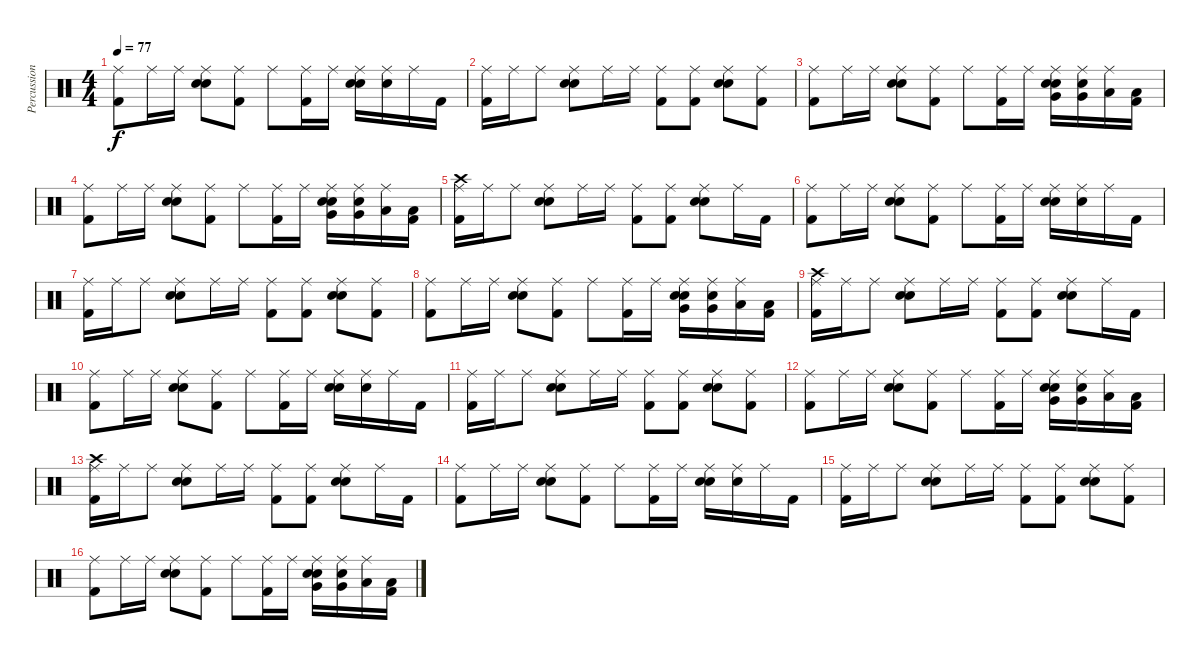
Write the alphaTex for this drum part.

\track ("Percussion" "Percussion") {instrument percussion}
\staff {score}
\articulation defaults
\ts (4 4)
\tempo 77
\clef neutral
\ks c
("Kick (hit) 2" "Ride (middle)").8{dy f} "Ride (middle)".16 "Ride (middle)".16 ("Metronome (bell)" "Electric Snare (hit)" "Ride (middle)").8 ("Kick (hit) 2" "Ride (middle)").8 "Ride (middle)".8 ("Kick (hit) 2" "Ride (middle)").16 "Ride (middle)".16 ("Metronome (bell)" "Electric Snare (hit)" "Ride (middle)").16 ("Electric Snare (hit)" "Ride (middle)").16 "Ride (middle)".16 "Kick (hit) 2".16 |
("Kick (hit) 2" "Ride (middle)").16 "Ride (middle)".16 "Ride (middle)".8 ("Metronome (bell)" "Electric Snare (hit)" "Ride (middle)").8 "Ride (middle)".16 "Ride (middle)".16 ("Kick (hit) 2" "Ride (middle)").8 ("Kick (hit) 2" "Ride (middle)").8 ("Metronome (bell)" "Electric Snare (hit)" "Ride (middle)").8 ("Kick (hit) 2" "Ride (middle)").8 |
("Kick (hit) 2" "Ride (middle)").8 "Ride (middle)".16 "Ride (middle)".16 ("Metronome (bell)" "Electric Snare (hit)" "Ride (middle)").8 ("Kick (hit) 2" "Ride (middle)").8 "Ride (middle)".8 ("Kick (hit) 2" "Ride (middle)").16 "Ride (middle)".16 ("Metronome (bell)" "Electric Snare (hit)" "Very Low Tom (hit)" "Ride (middle)").16 ("Electric Snare (hit)" "Very Low Tom (hit)" "Ride (middle)").16 ("Low Floor Tom (hit)" "Ride (middle)").16 ("Kick (hit) 2" "Low Floor Tom (hit)").16 |
("Kick (hit) 2" "Ride (middle)").8 "Ride (middle)".16 "Ride (middle)".16 ("Metronome (bell)" "Electric Snare (hit)" "Ride (middle)").8 ("Kick (hit) 2" "Ride (middle)").8 "Ride (middle)".8 ("Kick (hit) 2" "Ride (middle)").16 "Ride (middle)".16 ("Metronome (bell)" "Electric Snare (hit)" "Very Low Tom (hit)" "Ride (middle)").16 ("Electric Snare (hit)" "Very Low Tom (hit)" "Ride (middle)").16 ("Low Floor Tom (hit)" "Ride (middle)").16 ("Kick (hit) 2" "Low Floor Tom (hit)").16 |
("Kick (hit) 2" "Crash high (hit)" "Ride (middle)").16 "Ride (middle)".16 "Ride (middle)".8 ("Metronome (bell)" "Electric Snare (hit)" "Ride (middle)").8 "Ride (middle)".16 "Ride (middle)".16 ("Kick (hit) 2" "Ride (middle)").8 ("Kick (hit) 2" "Ride (middle)").8 ("Metronome (bell)" "Electric Snare (hit)" "Ride (middle)").8 "Ride (middle)".16 "Kick (hit) 2".16 |
("Kick (hit) 2" "Ride (middle)").8 "Ride (middle)".16 "Ride (middle)".16 ("Metronome (bell)" "Electric Snare (hit)" "Ride (middle)").8 ("Kick (hit) 2" "Ride (middle)").8 "Ride (middle)".8 ("Kick (hit) 2" "Ride (middle)").16 "Ride (middle)".16 ("Metronome (bell)" "Electric Snare (hit)" "Ride (middle)").16 ("Electric Snare (hit)" "Ride (middle)").16 "Ride (middle)".16 "Kick (hit) 2".16 |
("Kick (hit) 2" "Ride (middle)").16 "Ride (middle)".16 "Ride (middle)".8 ("Metronome (bell)" "Electric Snare (hit)" "Ride (middle)").8 "Ride (middle)".16 "Ride (middle)".16 ("Kick (hit) 2" "Ride (middle)").8 ("Kick (hit) 2" "Ride (middle)").8 ("Metronome (bell)" "Electric Snare (hit)" "Ride (middle)").8 ("Kick (hit) 2" "Ride (middle)").8 |
("Kick (hit) 2" "Ride (middle)").8 "Ride (middle)".16 "Ride (middle)".16 ("Metronome (bell)" "Electric Snare (hit)" "Ride (middle)").8 ("Kick (hit) 2" "Ride (middle)").8 "Ride (middle)".8 ("Kick (hit) 2" "Ride (middle)").16 "Ride (middle)".16 ("Metronome (bell)" "Electric Snare (hit)" "Very Low Tom (hit)" "Ride (middle)").16 ("Electric Snare (hit)" "Very Low Tom (hit)" "Ride (middle)").16 ("Low Floor Tom (hit)" "Ride (middle)").16 ("Kick (hit) 2" "Low Floor Tom (hit)").16 |
("Kick (hit) 2" "Crash high (hit)" "Ride (middle)").16 "Ride (middle)".16 "Ride (middle)".8 ("Metronome (bell)" "Electric Snare (hit)" "Ride (middle)").8 "Ride (middle)".16 "Ride (middle)".16 ("Kick (hit) 2" "Ride (middle)").8 ("Kick (hit) 2" "Ride (middle)").8 ("Metronome (bell)" "Electric Snare (hit)" "Ride (middle)").8 "Ride (middle)".16 "Kick (hit) 2".16 |
("Kick (hit) 2" "Ride (middle)").8 "Ride (middle)".16 "Ride (middle)".16 ("Metronome (bell)" "Electric Snare (hit)" "Ride (middle)").8 ("Kick (hit) 2" "Ride (middle)").8 "Ride (middle)".8 ("Kick (hit) 2" "Ride (middle)").16 "Ride (middle)".16 ("Metronome (bell)" "Electric Snare (hit)" "Ride (middle)").16 ("Electric Snare (hit)" "Ride (middle)").16 "Ride (middle)".16 "Kick (hit) 2".16 |
("Kick (hit) 2" "Ride (middle)").16 "Ride (middle)".16 "Ride (middle)".8 ("Metronome (bell)" "Electric Snare (hit)" "Ride (middle)").8 "Ride (middle)".16 "Ride (middle)".16 ("Kick (hit) 2" "Ride (middle)").8 ("Kick (hit) 2" "Ride (middle)").8 ("Metronome (bell)" "Electric Snare (hit)" "Ride (middle)").8 ("Kick (hit) 2" "Ride (middle)").8 |
("Kick (hit) 2" "Ride (middle)").8 "Ride (middle)".16 "Ride (middle)".16 ("Metronome (bell)" "Electric Snare (hit)" "Ride (middle)").8 ("Kick (hit) 2" "Ride (middle)").8 "Ride (middle)".8 ("Kick (hit) 2" "Ride (middle)").16 "Ride (middle)".16 ("Metronome (bell)" "Electric Snare (hit)" "Very Low Tom (hit)" "Ride (middle)").16 ("Electric Snare (hit)" "Very Low Tom (hit)" "Ride (middle)").16 ("Low Floor Tom (hit)" "Ride (middle)").16 ("Kick (hit) 2" "Low Floor Tom (hit)").16 |
("Kick (hit) 2" "Crash high (hit)" "Ride (middle)").16 "Ride (middle)".16 "Ride (middle)".8 ("Metronome (bell)" "Electric Snare (hit)" "Ride (middle)").8 "Ride (middle)".16 "Ride (middle)".16 ("Kick (hit) 2" "Ride (middle)").8 ("Kick (hit) 2" "Ride (middle)").8 ("Metronome (bell)" "Electric Snare (hit)" "Ride (middle)").8 "Ride (middle)".16 "Kick (hit) 2".16 |
("Kick (hit) 2" "Ride (middle)").8 "Ride (middle)".16 "Ride (middle)".16 ("Metronome (bell)" "Electric Snare (hit)" "Ride (middle)").8 ("Kick (hit) 2" "Ride (middle)").8 "Ride (middle)".8 ("Kick (hit) 2" "Ride (middle)").16 "Ride (middle)".16 ("Metronome (bell)" "Electric Snare (hit)" "Ride (middle)").16 ("Electric Snare (hit)" "Ride (middle)").16 "Ride (middle)".16 "Kick (hit) 2".16 |
("Kick (hit) 2" "Ride (middle)").16 "Ride (middle)".16 "Ride (middle)".8 ("Metronome (bell)" "Electric Snare (hit)" "Ride (middle)").8 "Ride (middle)".16 "Ride (middle)".16 ("Kick (hit) 2" "Ride (middle)").8 ("Kick (hit) 2" "Ride (middle)").8 ("Metronome (bell)" "Electric Snare (hit)" "Ride (middle)").8 ("Kick (hit) 2" "Ride (middle)").8 |
("Kick (hit) 2" "Ride (middle)").8 "Ride (middle)".16 "Ride (middle)".16 ("Metronome (bell)" "Electric Snare (hit)" "Ride (middle)").8 ("Kick (hit) 2" "Ride (middle)").8 "Ride (middle)".8 ("Kick (hit) 2" "Ride (middle)").16 "Ride (middle)".16 ("Metronome (bell)" "Electric Snare (hit)" "Very Low Tom (hit)" "Ride (middle)").16 ("Electric Snare (hit)" "Very Low Tom (hit)" "Ride (middle)").16 ("Low Floor Tom (hit)" "Ride (middle)").16 ("Kick (hit) 2" "Low Floor Tom (hit)").16
